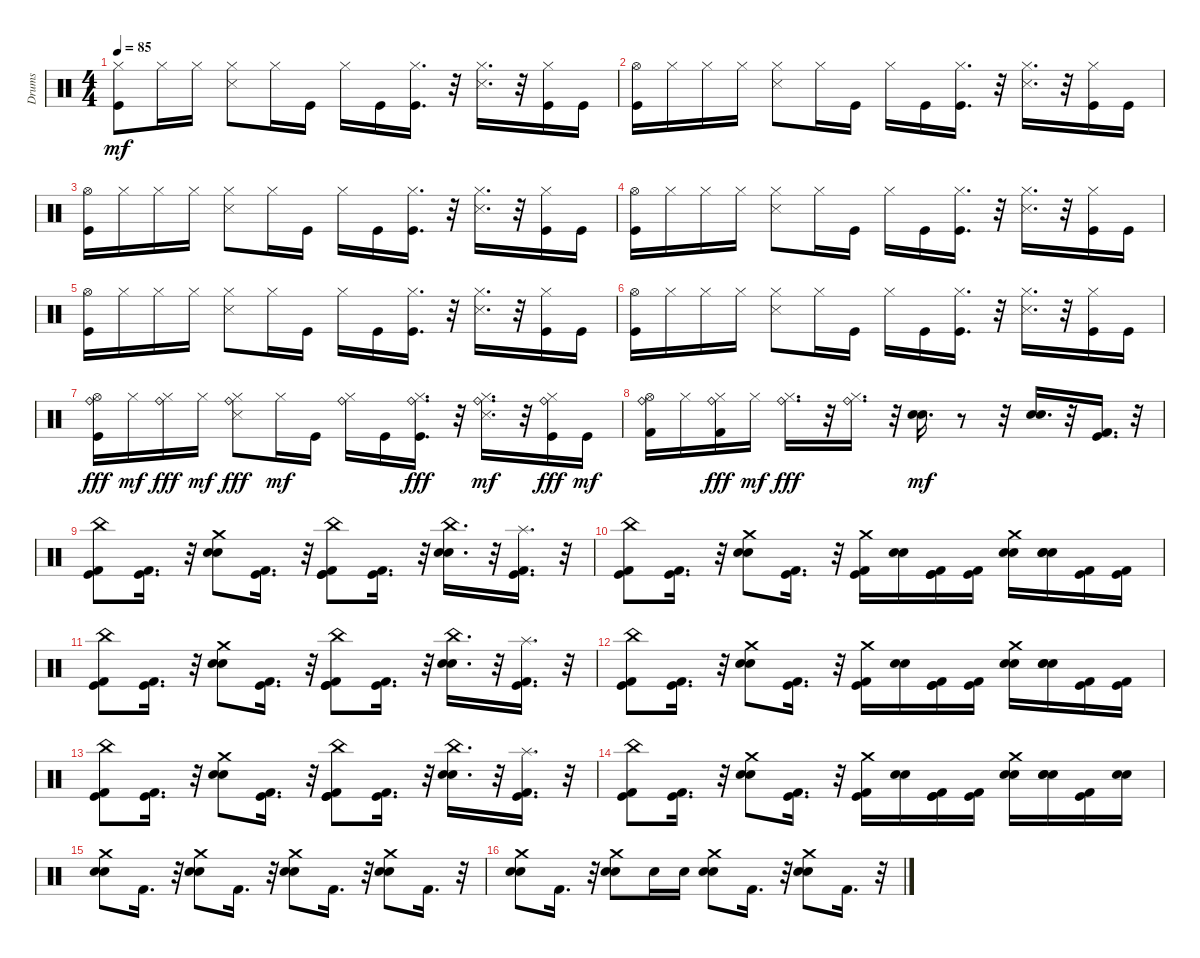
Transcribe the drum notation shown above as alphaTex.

\track ("Drums" "Drums") {instrument percussion}
\staff {score}
\articulation defaults
\ts (4 4)
\tempo 85
\clef neutral
\ks c
("Kick (hit)" "Hi-Hat (closed)").8{dy mf} "Hi-Hat (closed)".16 "Hi-Hat (closed)".16 ("Snare (side stick) 3" "Hi-Hat (closed)").8 "Hi-Hat (closed)".16 "Kick (hit)".16 "Hi-Hat (closed)".16 "Kick (hit)".16 ("Kick (hit)" "Hi-Hat (closed)").16{d} r.32 ("Snare (side stick) 3" "Hi-Hat (closed)").16{d} r.32 ("Kick (hit)" "Hi-Hat (closed)").16 "Kick (hit)".16 |
("Kick (hit)" "Hi-Hat (open)").16 "Hi-Hat (closed)".16 "Hi-Hat (closed)".16 "Hi-Hat (closed)".16 ("Snare (side stick) 3" "Hi-Hat (closed)").8 "Hi-Hat (closed)".16 "Kick (hit)".16 "Hi-Hat (closed)".16 "Kick (hit)".16 ("Kick (hit)" "Hi-Hat (closed)").16{d} r.32 ("Snare (side stick) 3" "Hi-Hat (closed)").16{d} r.32 ("Kick (hit)" "Hi-Hat (closed)").16 "Kick (hit)".16 |
("Kick (hit)" "Hi-Hat (open)").16 "Hi-Hat (closed)".16 "Hi-Hat (closed)".16 "Hi-Hat (closed)".16 ("Snare (side stick) 3" "Hi-Hat (closed)").8 "Hi-Hat (closed)".16 "Kick (hit)".16 "Hi-Hat (closed)".16 "Kick (hit)".16 ("Kick (hit)" "Hi-Hat (closed)").16{d} r.32 ("Snare (side stick) 3" "Hi-Hat (closed)").16{d} r.32 ("Kick (hit)" "Hi-Hat (closed)").16 "Kick (hit)".16 |
("Kick (hit)" "Hi-Hat (open)").16 "Hi-Hat (closed)".16 "Hi-Hat (closed)".16 "Hi-Hat (closed)".16 ("Snare (side stick) 3" "Hi-Hat (closed)").8 "Hi-Hat (closed)".16 "Kick (hit)".16 "Hi-Hat (closed)".16 "Kick (hit)".16 ("Kick (hit)" "Hi-Hat (closed)").16{d} r.32 ("Snare (side stick) 3" "Hi-Hat (closed)").16{d} r.32 ("Kick (hit)" "Hi-Hat (closed)").16 "Kick (hit)".16 |
("Kick (hit)" "Hi-Hat (open)").16 "Hi-Hat (closed)".16 "Hi-Hat (closed)".16 "Hi-Hat (closed)".16 ("Snare (side stick) 3" "Hi-Hat (closed)").8 "Hi-Hat (closed)".16 "Kick (hit)".16 "Hi-Hat (closed)".16 "Kick (hit)".16 ("Kick (hit)" "Hi-Hat (closed)").16{d} r.32 ("Snare (side stick) 3" "Hi-Hat (closed)").16{d} r.32 ("Kick (hit)" "Hi-Hat (closed)").16 "Kick (hit)".16 |
("Kick (hit)" "Hi-Hat (open)").16 "Hi-Hat (closed)".16 "Hi-Hat (closed)".16 "Hi-Hat (closed)".16 ("Snare (side stick) 3" "Hi-Hat (closed)").8 "Hi-Hat (closed)".16 "Kick (hit)".16 "Hi-Hat (closed)".16 "Kick (hit)".16 ("Kick (hit)" "Hi-Hat (closed)").16{d} r.32 ("Snare (side stick) 3" "Hi-Hat (closed)").16{d} r.32 ("Kick (hit)" "Hi-Hat (closed)").16 "Kick (hit)".16 |
("Kick (hit)" "Hi-Hat (open)" "Ride (bell)").16{dy fff} "Hi-Hat (closed)".16{dy mf} ("Hi-Hat (closed)" "Ride (bell)").16{dy fff} "Hi-Hat (closed)".16{dy mf} ("Snare (side stick) 3" "Hi-Hat (closed)" "Ride (bell)").8{dy fff} "Hi-Hat (closed)".16{dy mf} "Kick (hit)".16 ("Ride (bell)" "Hi-Hat (closed)").16 "Kick (hit)".16 ("Kick (hit)" "Hi-Hat (closed)" "Ride (bell)").16{d dy fff} r.32 ("Snare (side stick) 3" "Ride (bell)" "Hi-Hat (closed)").16{d dy mf} r.32 ("Kick (hit)" "Hi-Hat (closed)" "Ride (bell)").16{dy fff} "Kick (hit)".16{dy mf} |
("Kick (hit) 2" "Ride (bell)" "Hi-Hat (open)").16 "Hi-Hat (closed)".16 ("Kick (hit) 2" "Hi-Hat (closed)" "Ride (bell)").16{dy fff} "Hi-Hat (closed)".16{dy mf} ("Hi-Hat (closed)" "Ride (bell)").16{d dy fff} r.32 ("Hi-Hat (closed)" "Ride (bell)").16{d} r.32 ("Snare (hit) 2" "Electric Snare (hit)").16{d dy mf} r.8 r.32 ("Electric Snare (hit)" "Snare (hit) 2").16{d} r.32 ("Kick (hit) 2" "Kick (hit)").16{d} r.32 |
("Kick (hit) 2" "Kick (hit)" "China (hit)").8 ("Kick (hit) 2" "Kick (hit)").16{d} r.32 ("Snare (hit) 2" "Electric Snare (hit)" "Crash medium (hit)").8 ("Kick (hit)" "Kick (hit) 2").16{d} r.32 ("Kick (hit) 2" "Kick (hit)" "Kick (hit)" "China (hit)").8 ("Kick (hit) 2" "Kick (hit)").16{d} r.32 ("Snare (hit) 2" "Electric Snare (hit)" "China (hit)").16{d} r.32 ("Kick (hit) 2" "Kick (hit)" "Splash (hit)").16{d} r.32 |
("Kick (hit) 2" "Kick (hit)" "China (hit)").8 ("Kick (hit)" "Kick (hit) 2").16{d} r.32 ("Snare (hit) 2" "Electric Snare (hit)" "Crash medium (hit)").8 ("Kick (hit) 2" "Kick (hit)").16{d} r.32 ("Kick (hit) 2" "Kick (hit)" "Crash medium (hit)").16 ("Electric Snare (hit)" "Snare (hit) 2").16 ("Kick (hit)" "Kick (hit) 2" "Kick (hit)").16 ("Kick (hit) 2" "Kick (hit)").16 ("Electric Snare (hit)" "Snare (hit) 2" "Crash medium (hit)").16 ("Electric Snare (hit)" "Snare (hit) 2" "Electric Snare (hit)").16 ("Kick (hit) 2" "Kick (hit)").16 ("Kick (hit) 2" "Kick (hit)").16 |
("Kick (hit)" "Kick (hit) 2" "China (hit)").8 ("Kick (hit)" "Kick (hit) 2").16{d} r.32 ("Snare (hit) 2" "Electric Snare (hit)" "Crash medium (hit)").8 ("Kick (hit)" "Kick (hit) 2").16{d} r.32 ("Kick (hit)" "Kick (hit)" "Kick (hit) 2" "China (hit)").8 ("Kick (hit) 2" "Kick (hit)").16{d} r.32 ("Electric Snare (hit)" "Snare (hit) 2" "China (hit)").16{d} r.32 ("Kick (hit) 2" "Kick (hit)" "Splash (hit)").16{d} r.32 |
("Kick (hit)" "Kick (hit) 2" "China (hit)").8 ("Kick (hit)" "Kick (hit) 2").16{d} r.32 ("Snare (hit) 2" "Electric Snare (hit)" "Crash medium (hit)").8 ("Kick (hit) 2" "Kick (hit)").16{d} r.32 ("Kick (hit)" "Kick (hit) 2" "Crash medium (hit)").16 ("Electric Snare (hit)" "Snare (hit) 2").16 ("Kick (hit)" "Kick (hit) 2" "Kick (hit)").16 ("Kick (hit) 2" "Kick (hit)").16 ("Snare (hit) 2" "Electric Snare (hit)" "Crash medium (hit)").16 ("Electric Snare (hit)" "Snare (hit) 2" "Electric Snare (hit)").16 ("Kick (hit) 2" "Kick (hit)").16 ("Kick (hit)" "Kick (hit) 2").16 |
("Kick (hit)" "Kick (hit) 2" "China (hit)").8 ("Kick (hit)" "Kick (hit) 2").16{d} r.32 ("Electric Snare (hit)" "Snare (hit) 2" "Crash medium (hit)").8 ("Kick (hit) 2" "Kick (hit)").16{d} r.32 ("Kick (hit) 2" "Kick (hit)" "Kick (hit)" "China (hit)").8 ("Kick (hit)" "Kick (hit) 2").16{d} r.32 ("Electric Snare (hit)" "Snare (hit) 2" "China (hit)").16{d} r.32 ("Kick (hit)" "Kick (hit) 2" "Splash (hit)").16{d} r.32 |
("Kick (hit)" "Kick (hit) 2" "China (hit)").8 ("Kick (hit) 2" "Kick (hit)").16{d} r.32 ("Electric Snare (hit)" "Snare (hit) 2" "Crash medium (hit)").8 ("Kick (hit) 2" "Kick (hit)").16{d} r.32 ("Kick (hit) 2" "Kick (hit)" "Crash medium (hit)").16 ("Snare (hit) 2" "Electric Snare (hit)").16 ("Kick (hit)" "Kick (hit) 2" "Kick (hit)").16 ("Kick (hit) 2" "Kick (hit)").16 ("Snare (hit) 2" "Electric Snare (hit)" "Crash medium (hit)").16 ("Electric Snare (hit)" "Snare (hit) 2" "Electric Snare (hit)").16 ("Kick (hit) 2" "Kick (hit)").16 ("Snare (hit) 2" "Electric Snare (hit)").16 |
("Snare (hit) 2" "Electric Snare (hit)" "Crash medium (hit)").8 "Kick (hit) 2".16{d} r.32 ("Snare (hit) 2" "Electric Snare (hit)" "Crash medium (hit)").8 "Kick (hit) 2".16{d} r.32 ("Electric Snare (hit)" "Snare (hit) 2" "Crash medium (hit)").8 "Kick (hit) 2".16{d} r.32 ("Electric Snare (hit)" "Snare (hit) 2" "Crash medium (hit)").8 "Kick (hit) 2".16{d} r.32 |
("Snare (hit) 2" "Electric Snare (hit)" "Crash medium (hit)").8 "Kick (hit) 2".16{d} r.32 ("Snare (hit) 2" "Electric Snare (hit)" "Crash medium (hit)").8 "Electric Snare (hit)".16 "Snare (hit) 2".16 ("Electric Snare (hit)" "Snare (hit) 2" "Crash medium (hit)").8 "Kick (hit) 2".16{d} r.32 ("Snare (hit) 2" "Electric Snare (hit)" "Crash medium (hit)").8 "Kick (hit) 2".16{d} r.32
